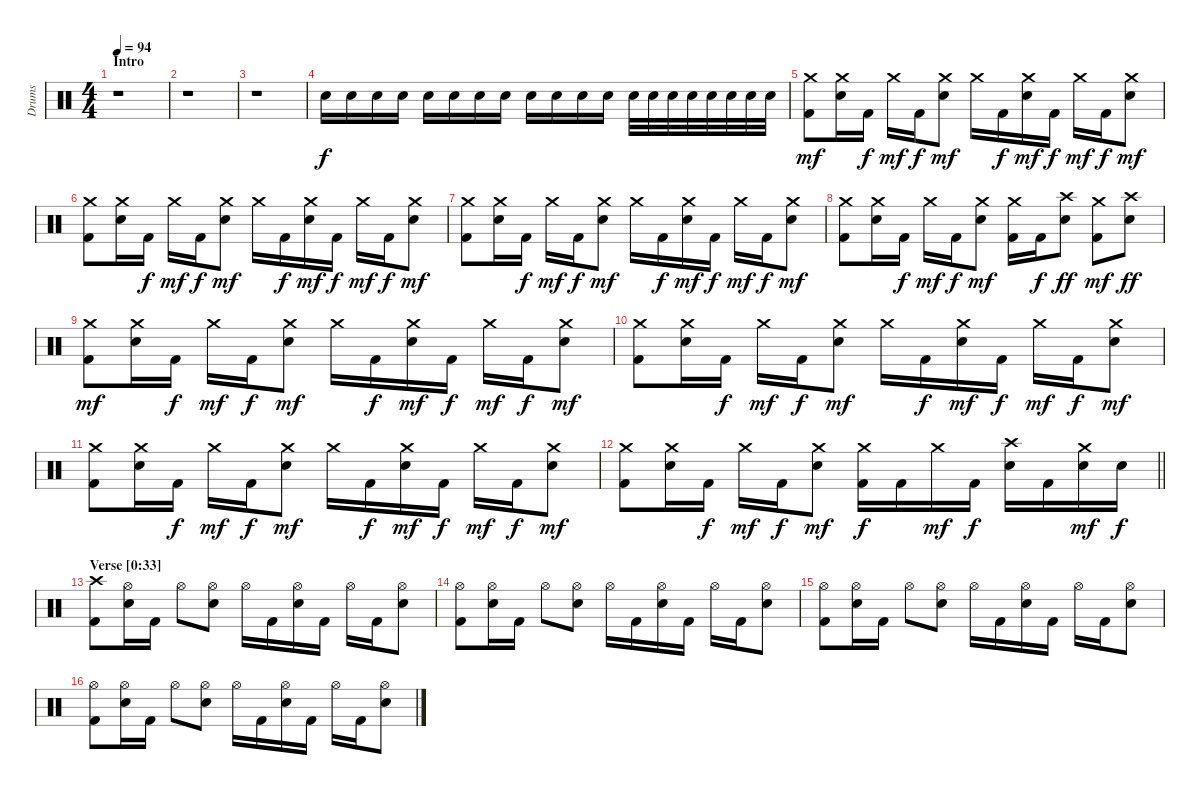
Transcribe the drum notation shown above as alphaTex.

\track ("Drums" "Drums") {instrument percussion}
\staff {score}
\articulation defaults
\ts (4 4)
\section ("" "Intro")
\tempo 94
\clef neutral
\ks c
r.1{dy f} |
r.1 |
r.1 |
"Electric Snare (hit)".16 "Electric Snare (hit)".16 "Electric Snare (hit)".16 "Electric Snare (hit)".16 "Electric Snare (hit)".16 "Electric Snare (hit)".16 "Electric Snare (hit)".16 "Electric Snare (hit)".16 "Electric Snare (hit)".16 "Electric Snare (hit)".16 "Electric Snare (hit)".16 "Electric Snare (hit)".16 "Electric Snare (hit)".32 "Electric Snare (hit)".32 "Electric Snare (hit)".32 "Electric Snare (hit)".32 "Electric Snare (hit)".32 "Electric Snare (hit)".32 "Electric Snare (hit)".32 "Electric Snare (hit)".32 |
("Crash medium (hit)" "Kick (hit) 2").8{dy mf} ("Crash medium (hit)" "Electric Snare (hit)").16 "Kick (hit) 2".16{dy f} "Crash medium (hit)".16{dy mf} "Kick (hit) 2".16{dy f} ("Crash medium (hit)" "Electric Snare (hit)").8{dy mf} "Crash medium (hit)".16 "Kick (hit) 2".16{dy f} ("Crash medium (hit)" "Electric Snare (hit)").16{dy mf} "Kick (hit) 2".16{dy f} "Crash medium (hit)".16{dy mf} "Kick (hit) 2".16{dy f} ("Crash medium (hit)" "Electric Snare (hit)").8{dy mf} |
("Crash medium (hit)" "Kick (hit) 2").8 ("Crash medium (hit)" "Electric Snare (hit)").16 "Kick (hit) 2".16{dy f} "Crash medium (hit)".16{dy mf} "Kick (hit) 2".16{dy f} ("Crash medium (hit)" "Electric Snare (hit)").8{dy mf} "Crash medium (hit)".16 "Kick (hit) 2".16{dy f} ("Crash medium (hit)" "Electric Snare (hit)").16{dy mf} "Kick (hit) 2".16{dy f} "Crash medium (hit)".16{dy mf} "Kick (hit) 2".16{dy f} ("Crash medium (hit)" "Electric Snare (hit)").8{dy mf} |
("Crash medium (hit)" "Kick (hit) 2").8 ("Crash medium (hit)" "Electric Snare (hit)").16 "Kick (hit) 2".16{dy f} "Crash medium (hit)".16{dy mf} "Kick (hit) 2".16{dy f} ("Crash medium (hit)" "Electric Snare (hit)").8{dy mf} "Crash medium (hit)".16 "Kick (hit) 2".16{dy f} ("Crash medium (hit)" "Electric Snare (hit)").16{dy mf} "Kick (hit) 2".16{dy f} "Crash medium (hit)".16{dy mf} "Kick (hit) 2".16{dy f} ("Crash medium (hit)" "Electric Snare (hit)").8{dy mf} |
("Crash medium (hit)" "Kick (hit) 2").8 ("Crash medium (hit)" "Electric Snare (hit)").16 "Kick (hit) 2".16{dy f} "Crash medium (hit)".16{dy mf} "Kick (hit) 2".16{dy f} ("Crash medium (hit)" "Electric Snare (hit)").8{dy mf} ("Crash medium (hit)" "Kick (hit) 2").16 "Kick (hit) 2".16{dy f} ("Crash high (hit)" "Electric Snare (hit)").8{dy ff} ("Crash medium (hit)" "Kick (hit) 2").8{dy mf} ("Crash high (hit)" "Electric Snare (hit)").8{dy ff} |
("Crash medium (hit)" "Kick (hit) 2").8{dy mf} ("Crash medium (hit)" "Electric Snare (hit)").16 "Kick (hit) 2".16{dy f} "Crash medium (hit)".16{dy mf} "Kick (hit) 2".16{dy f} ("Crash medium (hit)" "Electric Snare (hit)").8{dy mf} "Crash medium (hit)".16 "Kick (hit) 2".16{dy f} ("Crash medium (hit)" "Electric Snare (hit)").16{dy mf} "Kick (hit) 2".16{dy f} "Crash medium (hit)".16{dy mf} "Kick (hit) 2".16{dy f} ("Crash medium (hit)" "Electric Snare (hit)").8{dy mf} |
("Crash medium (hit)" "Kick (hit) 2").8 ("Crash medium (hit)" "Electric Snare (hit)").16 "Kick (hit) 2".16{dy f} "Crash medium (hit)".16{dy mf} "Kick (hit) 2".16{dy f} ("Crash medium (hit)" "Electric Snare (hit)").8{dy mf} "Crash medium (hit)".16 "Kick (hit) 2".16{dy f} ("Crash medium (hit)" "Electric Snare (hit)").16{dy mf} "Kick (hit) 2".16{dy f} "Crash medium (hit)".16{dy mf} "Kick (hit) 2".16{dy f} ("Crash medium (hit)" "Electric Snare (hit)").8{dy mf} |
("Crash medium (hit)" "Kick (hit) 2").8 ("Crash medium (hit)" "Electric Snare (hit)").16 "Kick (hit) 2".16{dy f} "Crash medium (hit)".16{dy mf} "Kick (hit) 2".16{dy f} ("Crash medium (hit)" "Electric Snare (hit)").8{dy mf} "Crash medium (hit)".16 "Kick (hit) 2".16{dy f} ("Crash medium (hit)" "Electric Snare (hit)").16{dy mf} "Kick (hit) 2".16{dy f} "Crash medium (hit)".16{dy mf} "Kick (hit) 2".16{dy f} ("Crash medium (hit)" "Electric Snare (hit)").8{dy mf} |
\barLineRight lightlight
("Crash medium (hit)" "Kick (hit) 2").8 ("Crash medium (hit)" "Electric Snare (hit)").16 "Kick (hit) 2".16{dy f} "Crash medium (hit)".16{dy mf} "Kick (hit) 2".16{dy f} ("Crash medium (hit)" "Electric Snare (hit)").8{dy mf} ("Crash medium (hit)" "Kick (hit) 2").16{dy f} "Kick (hit) 2".16 "Crash medium (hit)".16{dy mf} "Kick (hit) 2".16{dy f} ("Crash high (hit)" "Electric Snare (hit)").16 "Kick (hit) 2".16 ("Crash medium (hit)" "Electric Snare (hit)").16{dy mf} "Electric Snare (hit)".16{dy f} |
\section ("" "Verse [0:33]")
("Crash high (hit)" "Kick (hit) 2").8 ("Hi-Hat (open)" "Electric Snare (hit)").16 "Kick (hit) 2".16 "Hi-Hat (open)".8 ("Hi-Hat (open)" "Electric Snare (hit)").8 "Hi-Hat (open)".16 "Kick (hit) 2".16 ("Hi-Hat (open)" "Electric Snare (hit)").16 "Kick (hit) 2".16 "Hi-Hat (open)".16 "Kick (hit) 2".16 ("Hi-Hat (open)" "Electric Snare (hit)").8 |
("Hi-Hat (open)" "Kick (hit) 2").8 ("Hi-Hat (open)" "Electric Snare (hit)").16 "Kick (hit) 2".16 "Hi-Hat (open)".8 ("Hi-Hat (open)" "Electric Snare (hit)").8 "Hi-Hat (open)".16 "Kick (hit) 2".16 ("Hi-Hat (open)" "Electric Snare (hit)").16 "Kick (hit) 2".16 "Hi-Hat (open)".16 "Kick (hit) 2".16 ("Hi-Hat (open)" "Electric Snare (hit)").8 |
("Hi-Hat (open)" "Kick (hit) 2").8 ("Hi-Hat (open)" "Electric Snare (hit)").16 "Kick (hit) 2".16 "Hi-Hat (open)".8 ("Hi-Hat (open)" "Electric Snare (hit)").8 "Hi-Hat (open)".16 "Kick (hit) 2".16 ("Hi-Hat (open)" "Electric Snare (hit)").16 "Kick (hit) 2".16 "Hi-Hat (open)".16 "Kick (hit) 2".16 ("Hi-Hat (open)" "Electric Snare (hit)").8 |
("Hi-Hat (open)" "Kick (hit) 2").8 ("Hi-Hat (open)" "Electric Snare (hit)").16 "Kick (hit) 2".16 "Hi-Hat (open)".8 ("Hi-Hat (open)" "Electric Snare (hit)").8 "Hi-Hat (open)".16 "Kick (hit) 2".16 ("Hi-Hat (open)" "Electric Snare (hit)").16 "Kick (hit) 2".16 "Hi-Hat (open)".16 "Kick (hit) 2".16 ("Hi-Hat (open)" "Electric Snare (hit)").8
